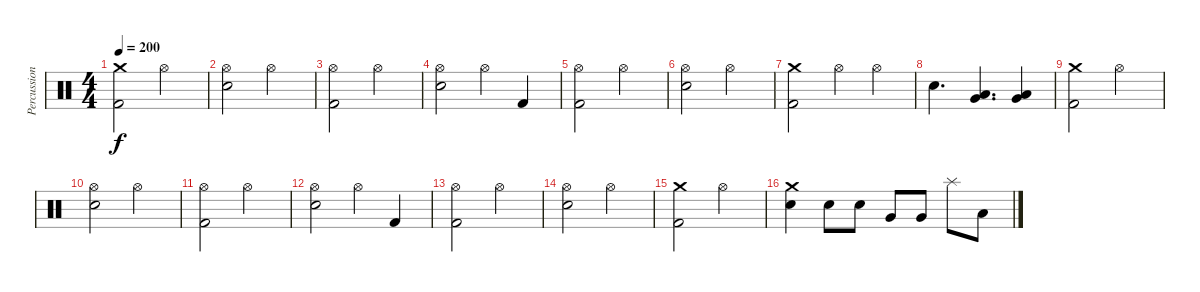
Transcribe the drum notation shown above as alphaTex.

\track ("Percussion" "Percussion") {instrument percussion}
\staff {score}
\articulation defaults
\ts (4 4)
\section ("" "")
\tempo 200
\clef neutral
\ks c
("Crash medium (hit)" "Kick (hit) 2").2{dy f} "Hi-Hat (open)".2 |
("Hi-Hat (open)" "Electric Snare (hit)").2 "Hi-Hat (open)".2 |
("Hi-Hat (open)" "Kick (hit) 2").2 "Hi-Hat (open)".2 |
("Hi-Hat (open)" "Electric Snare (hit)").2 "Hi-Hat (open)".4 "Kick (hit) 2".4 |
("Hi-Hat (open)" "Kick (hit) 2").2 "Hi-Hat (open)".2 |
("Hi-Hat (open)" "Electric Snare (hit)").2 "Hi-Hat (open)".2 |
("Crash medium (hit)" "Kick (hit) 2").2 "Hi-Hat (open)".4 "Hi-Hat (open)".4 |
"Electric Snare (hit)".4{d} ("Low Tom (hit)" "Very Low Tom (hit)").4{d} ("Very Low Tom (hit)" "Low Floor Tom (hit)").4 |
("Crash medium (hit)" "Kick (hit) 2").2 "Hi-Hat (open)".2 |
("Hi-Hat (open)" "Electric Snare (hit)").2 "Hi-Hat (open)".2 |
("Hi-Hat (open)" "Kick (hit) 2").2 "Hi-Hat (open)".2 |
("Hi-Hat (open)" "Electric Snare (hit)").2 "Hi-Hat (open)".4 "Kick (hit) 2".4 |
("Hi-Hat (open)" "Kick (hit) 2").2 "Hi-Hat (open)".2 |
("Hi-Hat (open)" "Electric Snare (hit)").2 "Hi-Hat (open)".2 |
("Crash medium (hit)" "Kick (hit) 2").2 "Hi-Hat (open)".2 |
("Crash medium (hit)" "Electric Snare (hit)").4 "Electric Snare (hit)".8 "Electric Snare (hit)".8 "Very Low Tom (hit)".8 "Very Low Tom (hit)".8 "Splash (hit)".8 "Low Floor Tom (hit)".8
